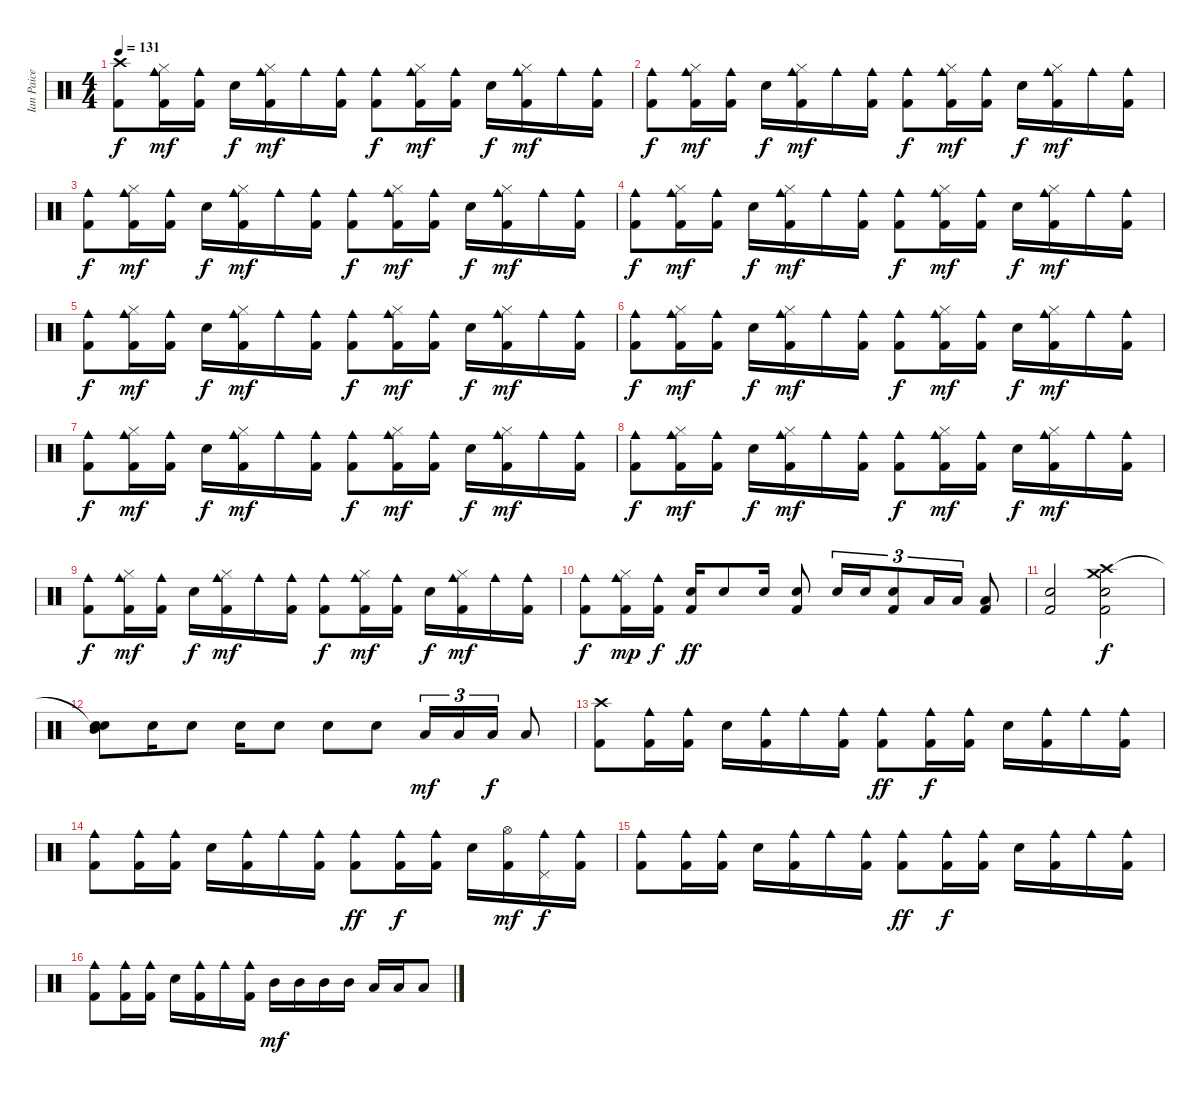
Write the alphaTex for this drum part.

\track ("Ian Paice" "Ian Paice") {instrument percussion}
\staff {score}
\articulation defaults
\ts (4 4)
\tempo 131
\clef neutral
\ks c
("Crash high (hit)" "Kick (hit) 2").8{dy f} ("Hi-Hat (closed)" "Cowbell medium (hit)" "Kick (hit) 2").16{dy mf} ("Cowbell medium (hit)" "Kick (hit) 2").16 "Snare (hit) 2".16{dy f} ("Hi-Hat (closed)" "Cowbell medium (hit)" "Kick (hit) 2").16{dy mf} "Cowbell medium (hit)".16 ("Cowbell medium (hit)" "Kick (hit) 2").16 ("Cowbell medium (hit)" "Kick (hit) 2").8{dy f} ("Hi-Hat (closed)" "Cowbell medium (hit)" "Kick (hit) 2").16{dy mf} ("Cowbell medium (hit)" "Kick (hit) 2").16 "Snare (hit) 2".16{dy f} ("Hi-Hat (closed)" "Cowbell medium (hit)" "Kick (hit) 2").16{dy mf} "Cowbell medium (hit)".16 ("Cowbell medium (hit)" "Kick (hit) 2").16 |
("Cowbell medium (hit)" "Kick (hit) 2").8{dy f} ("Hi-Hat (closed)" "Cowbell medium (hit)" "Kick (hit) 2").16{dy mf} ("Cowbell medium (hit)" "Kick (hit) 2").16 "Snare (hit) 2".16{dy f} ("Hi-Hat (closed)" "Cowbell medium (hit)" "Kick (hit) 2").16{dy mf} "Cowbell medium (hit)".16 ("Cowbell medium (hit)" "Kick (hit) 2").16 ("Cowbell medium (hit)" "Kick (hit) 2").8{dy f} ("Hi-Hat (closed)" "Cowbell medium (hit)" "Kick (hit) 2").16{dy mf} ("Cowbell medium (hit)" "Kick (hit) 2").16 "Snare (hit) 2".16{dy f} ("Hi-Hat (closed)" "Cowbell medium (hit)" "Kick (hit) 2").16{dy mf} "Cowbell medium (hit)".16 ("Cowbell medium (hit)" "Kick (hit) 2").16 |
("Cowbell medium (hit)" "Kick (hit) 2").8{dy f} ("Hi-Hat (closed)" "Cowbell medium (hit)" "Kick (hit) 2").16{dy mf} ("Cowbell medium (hit)" "Kick (hit) 2").16 "Snare (hit) 2".16{dy f} ("Hi-Hat (closed)" "Cowbell medium (hit)" "Kick (hit) 2").16{dy mf} "Cowbell medium (hit)".16 ("Cowbell medium (hit)" "Kick (hit) 2").16 ("Cowbell medium (hit)" "Kick (hit) 2").8{dy f} ("Hi-Hat (closed)" "Cowbell medium (hit)" "Kick (hit) 2").16{dy mf} ("Cowbell medium (hit)" "Kick (hit) 2").16 "Snare (hit) 2".16{dy f} ("Hi-Hat (closed)" "Cowbell medium (hit)" "Kick (hit) 2").16{dy mf} "Cowbell medium (hit)".16 ("Cowbell medium (hit)" "Kick (hit) 2").16 |
("Cowbell medium (hit)" "Kick (hit) 2").8{dy f} ("Hi-Hat (closed)" "Cowbell medium (hit)" "Kick (hit) 2").16{dy mf} ("Cowbell medium (hit)" "Kick (hit) 2").16 "Snare (hit) 2".16{dy f} ("Hi-Hat (closed)" "Cowbell medium (hit)" "Kick (hit) 2").16{dy mf} "Cowbell medium (hit)".16 ("Cowbell medium (hit)" "Kick (hit) 2").16 ("Cowbell medium (hit)" "Kick (hit) 2").8{dy f} ("Hi-Hat (closed)" "Cowbell medium (hit)" "Kick (hit) 2").16{dy mf} ("Cowbell medium (hit)" "Kick (hit) 2").16 "Snare (hit) 2".16{dy f} ("Hi-Hat (closed)" "Cowbell medium (hit)" "Kick (hit) 2").16{dy mf} "Cowbell medium (hit)".16 ("Cowbell medium (hit)" "Kick (hit) 2").16 |
("Cowbell medium (hit)" "Kick (hit) 2").8{dy f} ("Hi-Hat (closed)" "Cowbell medium (hit)" "Kick (hit) 2").16{dy mf} ("Cowbell medium (hit)" "Kick (hit) 2").16 "Snare (hit) 2".16{dy f} ("Hi-Hat (closed)" "Cowbell medium (hit)" "Kick (hit) 2").16{dy mf} "Cowbell medium (hit)".16 ("Cowbell medium (hit)" "Kick (hit) 2").16 ("Cowbell medium (hit)" "Kick (hit) 2").8{dy f} ("Hi-Hat (closed)" "Cowbell medium (hit)" "Kick (hit) 2").16{dy mf} ("Cowbell medium (hit)" "Kick (hit) 2").16 "Snare (hit) 2".16{dy f} ("Hi-Hat (closed)" "Cowbell medium (hit)" "Kick (hit) 2").16{dy mf} "Cowbell medium (hit)".16 ("Cowbell medium (hit)" "Kick (hit) 2").16 |
("Cowbell medium (hit)" "Kick (hit) 2").8{dy f} ("Hi-Hat (closed)" "Cowbell medium (hit)" "Kick (hit) 2").16{dy mf} ("Cowbell medium (hit)" "Kick (hit) 2").16 "Snare (hit) 2".16{dy f} ("Hi-Hat (closed)" "Cowbell medium (hit)" "Kick (hit) 2").16{dy mf} "Cowbell medium (hit)".16 ("Cowbell medium (hit)" "Kick (hit) 2").16 ("Cowbell medium (hit)" "Kick (hit) 2").8{dy f} ("Hi-Hat (closed)" "Cowbell medium (hit)" "Kick (hit) 2").16{dy mf} ("Cowbell medium (hit)" "Kick (hit) 2").16 "Snare (hit) 2".16{dy f} ("Hi-Hat (closed)" "Cowbell medium (hit)" "Kick (hit) 2").16{dy mf} "Cowbell medium (hit)".16 ("Cowbell medium (hit)" "Kick (hit) 2").16 |
("Cowbell medium (hit)" "Kick (hit) 2").8{dy f} ("Hi-Hat (closed)" "Cowbell medium (hit)" "Kick (hit) 2").16{dy mf} ("Cowbell medium (hit)" "Kick (hit) 2").16 "Snare (hit) 2".16{dy f} ("Hi-Hat (closed)" "Cowbell medium (hit)" "Kick (hit) 2").16{dy mf} "Cowbell medium (hit)".16 ("Cowbell medium (hit)" "Kick (hit) 2").16 ("Cowbell medium (hit)" "Kick (hit) 2").8{dy f} ("Hi-Hat (closed)" "Cowbell medium (hit)" "Kick (hit) 2").16{dy mf} ("Cowbell medium (hit)" "Kick (hit) 2").16 "Snare (hit) 2".16{dy f} ("Hi-Hat (closed)" "Cowbell medium (hit)" "Kick (hit) 2").16{dy mf} "Cowbell medium (hit)".16 ("Cowbell medium (hit)" "Kick (hit) 2").16 |
("Cowbell medium (hit)" "Kick (hit) 2").8{dy f} ("Hi-Hat (closed)" "Cowbell medium (hit)" "Kick (hit) 2").16{dy mf} ("Cowbell medium (hit)" "Kick (hit) 2").16 "Snare (hit) 2".16{dy f} ("Hi-Hat (closed)" "Cowbell medium (hit)" "Kick (hit) 2").16{dy mf} "Cowbell medium (hit)".16 ("Cowbell medium (hit)" "Kick (hit) 2").16 ("Cowbell medium (hit)" "Kick (hit) 2").8{dy f} ("Hi-Hat (closed)" "Cowbell medium (hit)" "Kick (hit) 2").16{dy mf} ("Cowbell medium (hit)" "Kick (hit) 2").16 "Snare (hit) 2".16{dy f} ("Hi-Hat (closed)" "Cowbell medium (hit)" "Kick (hit) 2").16{dy mf} "Cowbell medium (hit)".16 ("Cowbell medium (hit)" "Kick (hit) 2").16 |
("Cowbell medium (hit)" "Kick (hit) 2").8{dy f} ("Hi-Hat (closed)" "Cowbell medium (hit)" "Kick (hit) 2").16{dy mf} ("Cowbell medium (hit)" "Kick (hit) 2").16 "Snare (hit) 2".16{dy f} ("Hi-Hat (closed)" "Cowbell medium (hit)" "Kick (hit) 2").16{dy mf} "Cowbell medium (hit)".16 ("Cowbell medium (hit)" "Kick (hit) 2").16 ("Cowbell medium (hit)" "Kick (hit) 2").8{dy f} ("Hi-Hat (closed)" "Cowbell medium (hit)" "Kick (hit) 2").16{dy mf} ("Cowbell medium (hit)" "Kick (hit) 2").16 "Snare (hit) 2".16{dy f} ("Hi-Hat (closed)" "Cowbell medium (hit)" "Kick (hit) 2").16{dy mf} "Cowbell medium (hit)".16 ("Cowbell medium (hit)" "Kick (hit) 2").16 |
("Cowbell medium (hit)" "Kick (hit) 2").8{dy f} ("Hi-Hat (closed)" "Cowbell medium (hit)" "Kick (hit) 2").16{dy mp} ("Cowbell medium (hit)" "Kick (hit) 2").16{dy f} ("Electric Snare (hit)" "Kick (hit) 2").16{dy ff} "Electric Snare (hit)".8 "Electric Snare (hit)".16 ("Electric Snare (hit)" "Kick (hit) 2").8 "Electric Snare (hit)".16{tu (3 2)} "Electric Snare (hit)".16{tu (3 2)} ("Electric Snare (hit)" "Kick (hit) 2").8{tu (3 2)} "Low Tom (hit)".16{tu (3 2)} "Low Tom (hit)".16{tu (3 2)} ("Low Tom (hit)" "Kick (hit) 2").8 |
("Snare (hit) 2" "Kick (hit) 2").2 ("Crash high (hit)" "Crash medium (hit)" "Snare (hit) 2" "Kick (hit) 2").2{dy f} |
("Snare (hit)"{t} "Mid Tom (hit)" "Electric Snare (hit)").8 "Snare (hit) 2".16 "Snare (hit) 2".8 "Snare (hit) 2".16 "Snare (hit) 2".8 "Snare (hit) 2".8 "Snare (hit) 2".8 "Low Tom (hit)".16{tu (3 2) dy mf} "Low Tom (hit)".16{tu (3 2)} "Low Floor Tom (hit)".16{tu (3 2) dy f} "Low Floor Tom (hit)".8 |
("Crash high (hit)" "Kick (hit) 2").8 ("Cowbell medium (hit)" "Kick (hit) 2").16 ("Cowbell medium (hit)" "Kick (hit) 2").16 "Snare (hit) 2".16 ("Cowbell medium (hit)" "Kick (hit) 2").16 "Cowbell medium (hit)".16 ("Cowbell medium (hit)" "Kick (hit) 2").16 ("Cowbell medium (hit)" "Kick (hit) 2").8{dy ff} ("Cowbell medium (hit)" "Kick (hit) 2").16{dy f} ("Cowbell medium (hit)" "Kick (hit) 2").16 "Snare (hit) 2".16 ("Cowbell medium (hit)" "Kick (hit) 2").16 "Cowbell medium (hit)".16 ("Cowbell medium (hit)" "Kick (hit) 2").16 |
("Cowbell medium (hit)" "Kick (hit) 2").8 ("Cowbell medium (hit)" "Kick (hit) 2").16 ("Cowbell medium (hit)" "Kick (hit) 2").16 "Snare (hit) 2".16 ("Cowbell medium (hit)" "Kick (hit) 2").16 "Cowbell medium (hit)".16 ("Cowbell medium (hit)" "Kick (hit) 2").16 ("Cowbell medium (hit)" "Kick (hit) 2").8{dy ff} ("Cowbell medium (hit)" "Kick (hit) 2").16{dy f} ("Cowbell medium (hit)" "Kick (hit) 2").16 "Snare (hit) 2".16 ("Hi-Hat (open)" "Kick (hit) 2").16{dy mf} ("Pedal Hi-Hat (hit)" "Cowbell medium (hit)").16{dy f} ("Cowbell medium (hit)" "Kick (hit) 2").16 |
("Cowbell medium (hit)" "Kick (hit) 2").8 ("Cowbell medium (hit)" "Kick (hit) 2").16 ("Cowbell medium (hit)" "Kick (hit) 2").16 "Snare (hit) 2".16 ("Cowbell medium (hit)" "Kick (hit) 2").16 "Cowbell medium (hit)".16 ("Cowbell medium (hit)" "Kick (hit) 2").16 ("Cowbell medium (hit)" "Kick (hit) 2").8{dy ff} ("Cowbell medium (hit)" "Kick (hit) 2").16{dy f} ("Cowbell medium (hit)" "Kick (hit) 2").16 "Snare (hit) 2".16 ("Cowbell medium (hit)" "Kick (hit) 2").16 "Cowbell medium (hit)".16 ("Cowbell medium (hit)" "Kick (hit) 2").16 |
("Cowbell medium (hit)" "Kick (hit) 2").8 ("Cowbell medium (hit)" "Kick (hit) 2").16 ("Cowbell medium (hit)" "Kick (hit) 2").16 "Snare (hit) 2".16 ("Cowbell medium (hit)" "Kick (hit) 2").16 "Cowbell medium (hit)".16 ("Cowbell medium (hit)" "Kick (hit) 2").16 "Mid Tom (hit)".16{dy mf} "Mid Tom (hit)".16 "Mid Tom (hit)".16 "Mid Tom (hit)".16 "Low Tom (hit)".16 "Low Tom (hit)".16 "Low Tom (hit)".8
